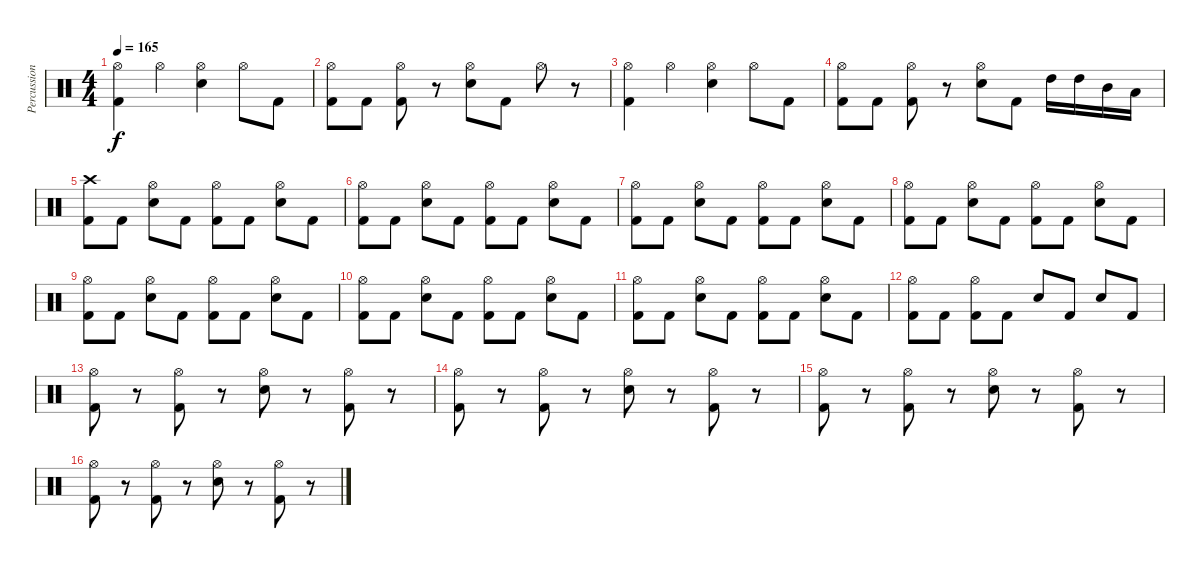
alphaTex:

\track ("Percussion" "Percussion") {instrument percussion}
\staff {score}
\articulation defaults
\ts (4 4)
\tempo 165
\clef neutral
\ks c
("Hi-Hat (open)" "Kick (hit) 2").4{dy f} "Hi-Hat (open)".4 ("Hi-Hat (open)" "Electric Snare (hit)").4 "Hi-Hat (open)".8 "Kick (hit) 2".8 |
("Hi-Hat (open)" "Kick (hit) 2").8 "Kick (hit) 2".8 ("Hi-Hat (open)" "Kick (hit) 2").8 r.8 ("Hi-Hat (open)" "Electric Snare (hit)").8 "Kick (hit) 2".8 "Hi-Hat (open)".8 r.8 |
("Hi-Hat (open)" "Kick (hit) 2").4 "Hi-Hat (open)".4 ("Hi-Hat (open)" "Electric Snare (hit)").4 "Hi-Hat (open)".8 "Kick (hit) 2".8 |
("Hi-Hat (open)" "Kick (hit) 2").8 "Kick (hit) 2".8 ("Hi-Hat (open)" "Kick (hit) 2").8 r.8 ("Hi-Hat (open)" "Electric Snare (hit)").8 "Kick (hit) 2".8 "High Tom (hit)".16 "High Tom (hit)".16 "Mid Tom (hit)".16 "Low Tom (hit)".16 |
("Crash high (hit)" "Kick (hit) 2").8 "Kick (hit) 2".8 ("Hi-Hat (open)" "Electric Snare (hit)").8 "Kick (hit) 2".8 ("Hi-Hat (open)" "Kick (hit) 2").8 "Kick (hit) 2".8 ("Hi-Hat (open)" "Electric Snare (hit)").8 "Kick (hit) 2".8 |
("Hi-Hat (open)" "Kick (hit) 2").8 "Kick (hit) 2".8 ("Hi-Hat (open)" "Electric Snare (hit)").8 "Kick (hit) 2".8 ("Hi-Hat (open)" "Kick (hit) 2").8 "Kick (hit) 2".8 ("Hi-Hat (open)" "Electric Snare (hit)").8 "Kick (hit) 2".8 |
("Hi-Hat (open)" "Kick (hit) 2").8 "Kick (hit) 2".8 ("Hi-Hat (open)" "Electric Snare (hit)").8 "Kick (hit) 2".8 ("Hi-Hat (open)" "Kick (hit) 2").8 "Kick (hit) 2".8 ("Hi-Hat (open)" "Electric Snare (hit)").8 "Kick (hit) 2".8 |
("Hi-Hat (open)" "Kick (hit) 2").8 "Kick (hit) 2".8 ("Hi-Hat (open)" "Electric Snare (hit)").8 "Kick (hit) 2".8 ("Hi-Hat (open)" "Kick (hit) 2").8 "Kick (hit) 2".8 ("Hi-Hat (open)" "Electric Snare (hit)").8 "Kick (hit) 2".8 |
("Hi-Hat (open)" "Kick (hit) 2").8 "Kick (hit) 2".8 ("Hi-Hat (open)" "Electric Snare (hit)").8 "Kick (hit) 2".8 ("Hi-Hat (open)" "Kick (hit) 2").8 "Kick (hit) 2".8 ("Hi-Hat (open)" "Electric Snare (hit)").8 "Kick (hit) 2".8 |
("Hi-Hat (open)" "Kick (hit) 2").8 "Kick (hit) 2".8 ("Hi-Hat (open)" "Electric Snare (hit)").8 "Kick (hit) 2".8 ("Hi-Hat (open)" "Kick (hit) 2").8 "Kick (hit) 2".8 ("Hi-Hat (open)" "Electric Snare (hit)").8 "Kick (hit) 2".8 |
("Hi-Hat (open)" "Kick (hit) 2").8 "Kick (hit) 2".8 ("Hi-Hat (open)" "Electric Snare (hit)").8 "Kick (hit) 2".8 ("Hi-Hat (open)" "Kick (hit) 2").8 "Kick (hit) 2".8 ("Hi-Hat (open)" "Electric Snare (hit)").8 "Kick (hit) 2".8 |
("Hi-Hat (open)" "Kick (hit) 2").8 "Kick (hit) 2".8 ("Hi-Hat (open)" "Kick (hit) 2").8 "Kick (hit) 2".8 "Electric Snare (hit)".8 "Kick (hit) 2".8 "Electric Snare (hit)".8 "Kick (hit) 2".8 |
("Hi-Hat (open)" "Kick (hit) 2").8 r.8 ("Hi-Hat (open)" "Kick (hit) 2").8 r.8 ("Hi-Hat (open)" "Electric Snare (hit)").8 r.8 ("Hi-Hat (open)" "Kick (hit) 2").8 r.8 |
("Hi-Hat (open)" "Kick (hit) 2").8 r.8 ("Hi-Hat (open)" "Kick (hit) 2").8 r.8 ("Hi-Hat (open)" "Electric Snare (hit)").8 r.8 ("Hi-Hat (open)" "Kick (hit) 2").8 r.8 |
("Hi-Hat (open)" "Kick (hit) 2").8 r.8 ("Hi-Hat (open)" "Kick (hit) 2").8 r.8 ("Hi-Hat (open)" "Electric Snare (hit)").8 r.8 ("Hi-Hat (open)" "Kick (hit) 2").8 r.8 |
("Hi-Hat (open)" "Kick (hit) 2").8 r.8 ("Hi-Hat (open)" "Kick (hit) 2").8 r.8 ("Hi-Hat (open)" "Electric Snare (hit)").8 r.8 ("Hi-Hat (open)" "Kick (hit) 2").8 r.8
